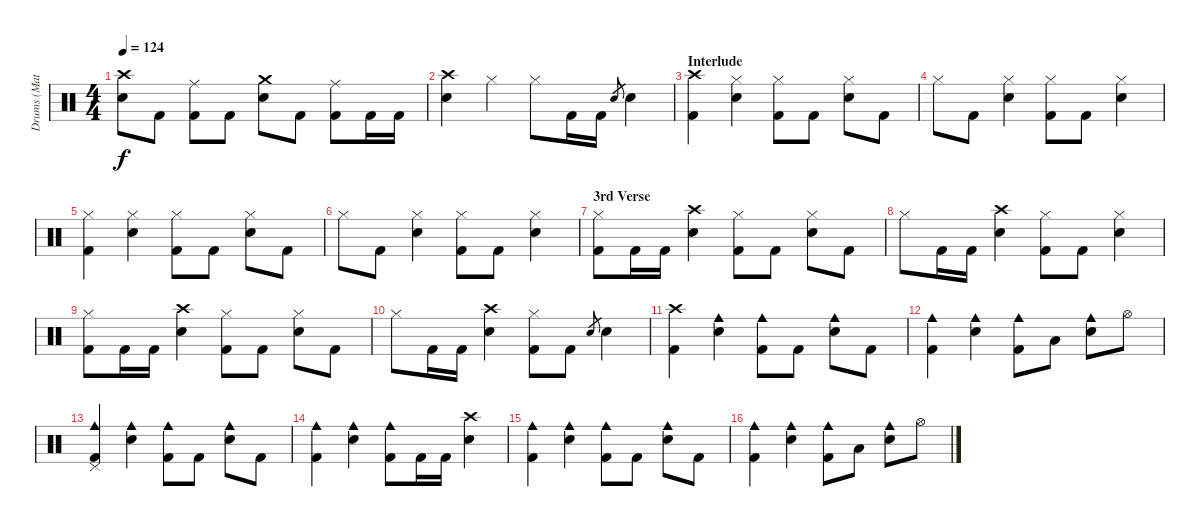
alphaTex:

\track ("Drums (Matt)" "Drums (Mat") {instrument percussion}
\staff {score}
\articulation defaults
\ts (4 4)
\tempo 124
\clef neutral
\ks c
("Crash high (hit)" "Snare (hit) 2").8{dy f} "Kick (hit) 2".8 ("Ride (middle)" "Kick (hit) 2").8 "Kick (hit) 2".8 ("Crash medium (hit)" "Snare (hit) 2").8 "Kick (hit) 2".8 ("Ride (middle)" "Kick (hit) 2").8 "Kick (hit) 2".16 "Kick (hit) 2".16 |
("Crash high (hit)" "Snare (hit) 2").4 "Hi-Hat (closed)".4 "Hi-Hat (closed)".8 "Kick (hit) 2".16 "Kick (hit) 2".16 "Snare (hit) 2".8{gr} "Snare (hit) 2".4 |
\section ("" "Interlude")
("Crash high (hit)" "Kick (hit) 2").4 ("Hi-Hat (closed)" "Snare (hit) 2").4 ("Hi-Hat (closed)" "Kick (hit) 2").8 "Kick (hit) 2".8 ("Hi-Hat (closed)" "Snare (hit) 2").8 "Kick (hit) 2".8 |
"Hi-Hat (closed)".8 "Kick (hit) 2".8 ("Hi-Hat (closed)" "Snare (hit) 2").4 ("Hi-Hat (closed)" "Kick (hit) 2").8 "Kick (hit) 2".8 ("Hi-Hat (closed)" "Snare (hit) 2").4 |
("Hi-Hat (closed)" "Kick (hit) 2").4 ("Hi-Hat (closed)" "Snare (hit) 2").4 ("Hi-Hat (closed)" "Kick (hit) 2").8 "Kick (hit) 2".8 ("Hi-Hat (closed)" "Snare (hit) 2").8 "Kick (hit) 2".8 |
"Hi-Hat (closed)".8 "Kick (hit) 2".8 ("Hi-Hat (closed)" "Snare (hit) 2").4 ("Hi-Hat (closed)" "Kick (hit) 2").8 "Kick (hit) 2".8 ("Hi-Hat (closed)" "Snare (hit) 2").4 |
\section ("" "3rd Verse")
("Hi-Hat (closed)" "Kick (hit) 2").8 "Kick (hit) 2".16 "Kick (hit) 2".16 ("Crash high (hit)" "Snare (hit) 2").4 ("Hi-Hat (closed)" "Kick (hit) 2").8 "Kick (hit) 2".8 ("Hi-Hat (closed)" "Snare (hit) 2").8 "Kick (hit) 2".8 |
"Hi-Hat (closed)".8 "Kick (hit) 2".16 "Kick (hit) 2".16 ("Crash high (hit)" "Snare (hit) 2").4 ("Hi-Hat (closed)" "Kick (hit) 2").8 "Kick (hit) 2".8 ("Hi-Hat (closed)" "Snare (hit) 2").4 |
("Hi-Hat (closed)" "Kick (hit) 2").8 "Kick (hit) 2".16 "Kick (hit) 2".16 ("Crash high (hit)" "Snare (hit) 2").4 ("Hi-Hat (closed)" "Kick (hit) 2").8 "Kick (hit) 2".8 ("Hi-Hat (closed)" "Snare (hit) 2").8 "Kick (hit) 2".8 |
"Hi-Hat (closed)".8 "Kick (hit) 2".16 "Kick (hit) 2".16 ("Crash high (hit)" "Snare (hit) 2").4 ("Hi-Hat (closed)" "Kick (hit) 2").8 "Kick (hit) 2".8 "Snare (hit) 2".8{gr} "Snare (hit) 2".4 |
("Crash high (hit)" "Kick (hit) 2").4 ("Cowbell medium (hit)" "Snare (hit) 2").4 ("Cowbell medium (hit)" "Kick (hit) 2").8 "Kick (hit) 2".8 ("Cowbell medium (hit)" "Snare (hit) 2").8 "Kick (hit) 2".8 |
("Cowbell medium (hit)" "Kick (hit) 2").4 ("Cowbell medium (hit)" "Snare (hit) 2").4 ("Cowbell medium (hit)" "Kick (hit) 2").8 "Low Tom (hit)".8 ("Cowbell medium (hit)" "Snare (hit) 2").8 "Hi-Hat (open)".8 |
("Cowbell medium (hit)" "Pedal Hi-Hat (hit)" "Kick (hit) 2").4 ("Cowbell medium (hit)" "Snare (hit) 2").4 ("Cowbell medium (hit)" "Kick (hit) 2").8 "Kick (hit) 2".8 ("Cowbell medium (hit)" "Snare (hit) 2").8 "Kick (hit) 2".8 |
("Cowbell medium (hit)" "Kick (hit) 2").4 ("Cowbell medium (hit)" "Snare (hit) 2").4 ("Cowbell medium (hit)" "Kick (hit) 2").8 "Kick (hit) 2".16 "Kick (hit) 2".16 ("Crash high (hit)" "Snare (hit) 2").4 |
("Cowbell medium (hit)" "Kick (hit) 2").4 ("Cowbell medium (hit)" "Snare (hit) 2").4 ("Cowbell medium (hit)" "Kick (hit) 2").8 "Kick (hit) 2".8 ("Cowbell medium (hit)" "Snare (hit) 2").8 "Kick (hit) 2".8 |
("Cowbell medium (hit)" "Kick (hit) 2").4 ("Cowbell medium (hit)" "Snare (hit) 2").4 ("Cowbell medium (hit)" "Kick (hit) 2").8 "Low Tom (hit)".8 ("Cowbell medium (hit)" "Snare (hit) 2").8 "Hi-Hat (open)".8
